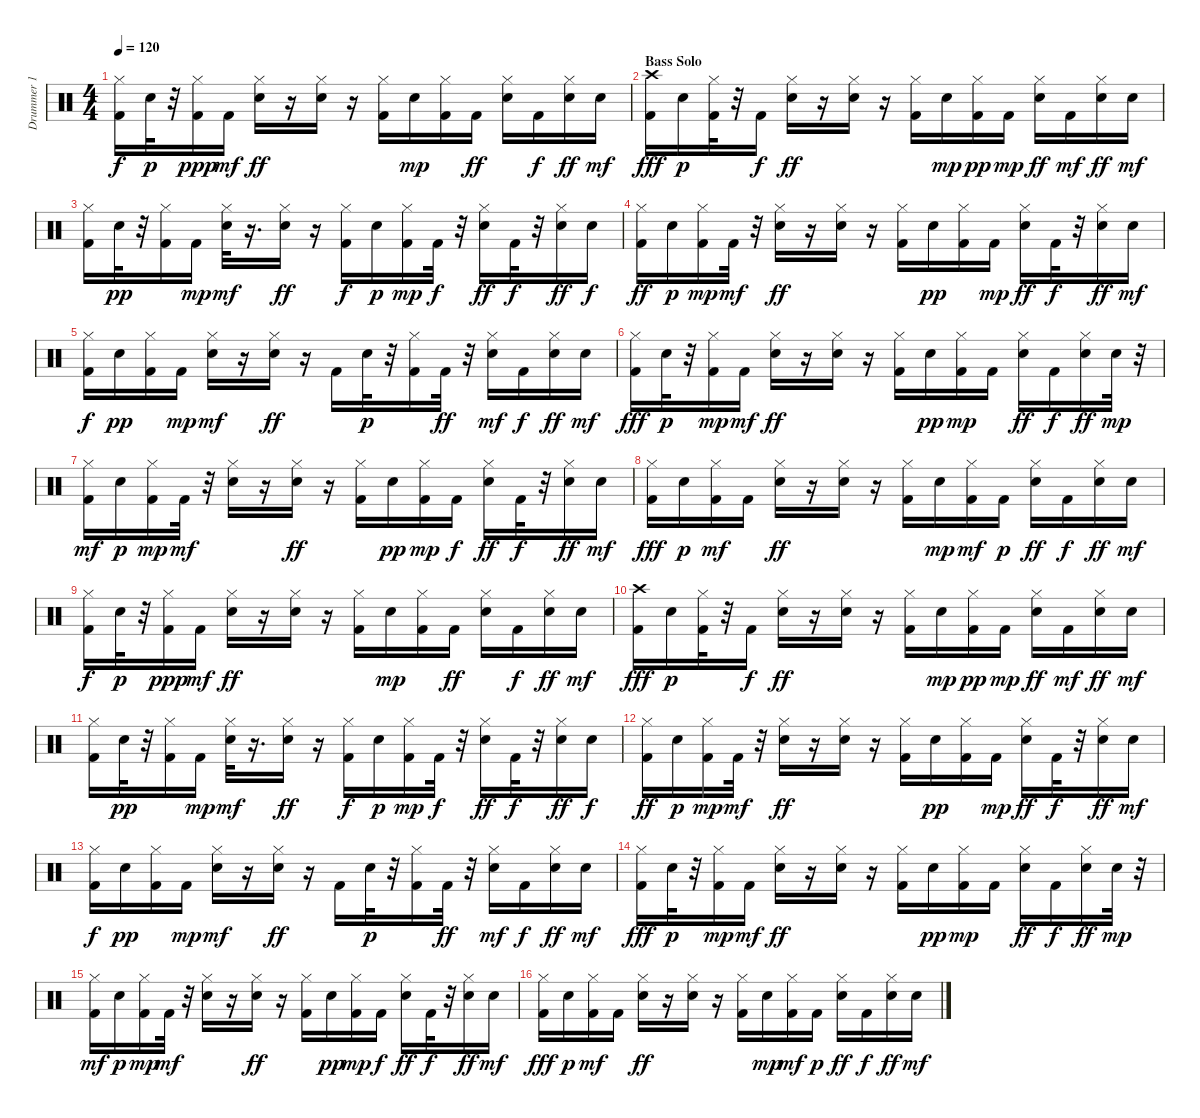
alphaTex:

\track ("Drummer 1" "Drummer 1") {instrument percussion}
\staff {score}
\articulation defaults
\ts (4 4)
\tempo 120
\clef neutral
\ks c
("Hi-Hat (closed)" "Kick (hit) 2").16{dy f} "Electric Snare (hit)".32{dy p} r.32 ("Kick (hit) 2" "Hi-Hat (closed)").16{dy ppp} "Kick (hit) 2".16{dy mf} ("Electric Snare (hit)" "Hi-Hat (closed)").16{dy ff} r.16 ("Hi-Hat (closed)" "Electric Snare (hit)").16 r.16 ("Hi-Hat (closed)" "Kick (hit) 2").16 "Electric Snare (hit)".16{dy mp} ("Hi-Hat (closed)" "Kick (hit) 2").16 "Kick (hit) 2".16{dy ff} ("Hi-Hat (closed)" "Electric Snare (hit)").16 "Kick (hit) 2".16{dy f} ("Hi-Hat (closed)" "Electric Snare (hit)").16{dy ff} "Electric Snare (hit)".16{dy mf} |
\section ("" "Bass Solo")
("Crash high (hit)" "Kick (hit) 2").16{dy fff} "Electric Snare (hit)".16{dy p} ("Hi-Hat (closed)" "Kick (hit) 2").32 r.32 "Kick (hit) 2".16{dy f} ("Hi-Hat (closed)" "Electric Snare (hit)").16{dy ff} r.16 ("Hi-Hat (closed)" "Electric Snare (hit)").16 r.16 ("Hi-Hat (closed)" "Kick (hit) 2").16 "Electric Snare (hit)".16{dy mp} ("Kick (hit) 2" "Hi-Hat (closed)").16{dy pp} "Kick (hit) 2".16{dy mp} ("Hi-Hat (closed)" "Electric Snare (hit)").16{dy ff} "Kick (hit) 2".16{dy mf} ("Hi-Hat (closed)" "Electric Snare (hit)").16{dy ff} "Electric Snare (hit)".16{dy mf} |
("Hi-Hat (closed)" "Kick (hit) 2").16 "Electric Snare (hit)".32{dy pp} r.32 ("Kick (hit) 2" "Hi-Hat (closed)").16 "Kick (hit) 2".16{dy mp} ("Electric Snare (hit)" "Hi-Hat (closed)").32{dy mf} r.16{d} ("Hi-Hat (closed)" "Electric Snare (hit)").16{dy ff} r.16 ("Hi-Hat (closed)" "Kick (hit) 2").16{dy f} "Electric Snare (hit)".16{dy p} ("Hi-Hat (closed)" "Kick (hit) 2").16{dy mp} "Kick (hit) 2".32{dy f} r.32 ("Hi-Hat (closed)" "Electric Snare (hit)").16{dy ff} "Kick (hit) 2".32{dy f} r.32 ("Hi-Hat (closed)" "Electric Snare (hit)").16{dy ff} "Electric Snare (hit)".16{dy f} |
("Hi-Hat (closed)" "Kick (hit) 2").16{dy ff} "Electric Snare (hit)".16{dy p} ("Hi-Hat (closed)" "Kick (hit) 2").16{dy mp} "Kick (hit) 2".32{dy mf} r.32 ("Hi-Hat (closed)" "Electric Snare (hit)").16{dy ff} r.16 ("Hi-Hat (closed)" "Electric Snare (hit)").16 r.16 ("Hi-Hat (closed)" "Kick (hit) 2").16 "Electric Snare (hit)".16{dy pp} ("Kick (hit) 2" "Hi-Hat (closed)").16 "Kick (hit) 2".16{dy mp} ("Hi-Hat (closed)" "Electric Snare (hit)").16{dy ff} "Kick (hit) 2".32{dy f} r.32 ("Hi-Hat (closed)" "Electric Snare (hit)").16{dy ff} "Electric Snare (hit)".16{dy mf} |
("Hi-Hat (closed)" "Kick (hit) 2").16{dy f} "Electric Snare (hit)".16{dy pp} ("Kick (hit) 2" "Hi-Hat (closed)").16 "Kick (hit) 2".16{dy mp} ("Electric Snare (hit)" "Hi-Hat (closed)").16{dy mf} r.16 ("Hi-Hat (closed)" "Electric Snare (hit)").16{dy ff} r.16 "Kick (hit) 2".16 "Electric Snare (hit)".32{dy p} r.32 ("Hi-Hat (closed)" "Kick (hit) 2").16 "Kick (hit) 2".32{dy ff} r.32 ("Hi-Hat (closed)" "Electric Snare (hit)").16{dy mf} "Kick (hit) 2".16{dy f} ("Hi-Hat (closed)" "Electric Snare (hit)").16{dy ff} "Electric Snare (hit)".16{dy mf} |
("Hi-Hat (closed)" "Kick (hit) 2").16{dy fff} "Electric Snare (hit)".32{dy p} r.32 ("Hi-Hat (closed)" "Kick (hit) 2").16{dy mp} "Kick (hit) 2".16{dy mf} ("Hi-Hat (closed)" "Electric Snare (hit)").16{dy ff} r.16 ("Hi-Hat (closed)" "Electric Snare (hit)").16 r.16 ("Hi-Hat (closed)" "Kick (hit) 2").16 "Electric Snare (hit)".16{dy pp} ("Kick (hit) 2" "Hi-Hat (closed)").16{dy mp} "Kick (hit) 2".16 ("Hi-Hat (closed)" "Electric Snare (hit)").16{dy ff} "Kick (hit) 2".16{dy f} ("Hi-Hat (closed)" "Electric Snare (hit)").16{dy ff} "Electric Snare (hit)".32{dy mp} r.32 |
("Hi-Hat (closed)" "Kick (hit) 2").16{dy mf} "Electric Snare (hit)".16{dy p} ("Kick (hit) 2" "Hi-Hat (closed)").16{dy mp} "Kick (hit) 2".32{dy mf} r.32 ("Electric Snare (hit)" "Hi-Hat (closed)").16 r.16 ("Hi-Hat (closed)" "Electric Snare (hit)").16{dy ff} r.16 ("Hi-Hat (closed)" "Kick (hit) 2").16 "Electric Snare (hit)".16{dy pp} ("Hi-Hat (closed)" "Kick (hit) 2").16{dy mp} "Kick (hit) 2".16{dy f} ("Hi-Hat (closed)" "Electric Snare (hit)").16{dy ff} "Kick (hit) 2".32{dy f} r.32 ("Hi-Hat (closed)" "Electric Snare (hit)").16{dy ff} "Electric Snare (hit)".16{dy mf} |
("Hi-Hat (closed)" "Kick (hit) 2").16{dy fff} "Electric Snare (hit)".16{dy p} ("Hi-Hat (closed)" "Kick (hit) 2").16{dy mf} "Kick (hit) 2".16 ("Hi-Hat (closed)" "Electric Snare (hit)").16{dy ff} r.16 ("Hi-Hat (closed)" "Electric Snare (hit)").16 r.16 ("Hi-Hat (closed)" "Kick (hit) 2").16 "Electric Snare (hit)".16{dy mp} ("Kick (hit) 2" "Hi-Hat (closed)").16{dy mf} "Kick (hit) 2".16{dy p} ("Hi-Hat (closed)" "Electric Snare (hit)").16{dy ff} "Kick (hit) 2".16{dy f} ("Hi-Hat (closed)" "Electric Snare (hit)").16{dy ff} "Electric Snare (hit)".16{dy mf} |
("Hi-Hat (closed)" "Kick (hit) 2").16{dy f} "Electric Snare (hit)".32{dy p} r.32 ("Kick (hit) 2" "Hi-Hat (closed)").16{dy ppp} "Kick (hit) 2".16{dy mf} ("Electric Snare (hit)" "Hi-Hat (closed)").16{dy ff} r.16 ("Hi-Hat (closed)" "Electric Snare (hit)").16 r.16 ("Hi-Hat (closed)" "Kick (hit) 2").16 "Electric Snare (hit)".16{dy mp} ("Hi-Hat (closed)" "Kick (hit) 2").16 "Kick (hit) 2".16{dy ff} ("Hi-Hat (closed)" "Electric Snare (hit)").16 "Kick (hit) 2".16{dy f} ("Hi-Hat (closed)" "Electric Snare (hit)").16{dy ff} "Electric Snare (hit)".16{dy mf} |
("Crash high (hit)" "Kick (hit) 2").16{dy fff} "Electric Snare (hit)".16{dy p} ("Hi-Hat (closed)" "Kick (hit) 2").32 r.32 "Kick (hit) 2".16{dy f} ("Hi-Hat (closed)" "Electric Snare (hit)").16{dy ff} r.16 ("Hi-Hat (closed)" "Electric Snare (hit)").16 r.16 ("Hi-Hat (closed)" "Kick (hit) 2").16 "Electric Snare (hit)".16{dy mp} ("Kick (hit) 2" "Hi-Hat (closed)").16{dy pp} "Kick (hit) 2".16{dy mp} ("Hi-Hat (closed)" "Electric Snare (hit)").16{dy ff} "Kick (hit) 2".16{dy mf} ("Hi-Hat (closed)" "Electric Snare (hit)").16{dy ff} "Electric Snare (hit)".16{dy mf} |
("Hi-Hat (closed)" "Kick (hit) 2").16 "Electric Snare (hit)".32{dy pp} r.32 ("Kick (hit) 2" "Hi-Hat (closed)").16 "Kick (hit) 2".16{dy mp} ("Electric Snare (hit)" "Hi-Hat (closed)").32{dy mf} r.16{d} ("Hi-Hat (closed)" "Electric Snare (hit)").16{dy ff} r.16 ("Hi-Hat (closed)" "Kick (hit) 2").16{dy f} "Electric Snare (hit)".16{dy p} ("Hi-Hat (closed)" "Kick (hit) 2").16{dy mp} "Kick (hit) 2".32{dy f} r.32 ("Hi-Hat (closed)" "Electric Snare (hit)").16{dy ff} "Kick (hit) 2".32{dy f} r.32 ("Hi-Hat (closed)" "Electric Snare (hit)").16{dy ff} "Electric Snare (hit)".16{dy f} |
("Hi-Hat (closed)" "Kick (hit) 2").16{dy ff} "Electric Snare (hit)".16{dy p} ("Hi-Hat (closed)" "Kick (hit) 2").16{dy mp} "Kick (hit) 2".32{dy mf} r.32 ("Hi-Hat (closed)" "Electric Snare (hit)").16{dy ff} r.16 ("Hi-Hat (closed)" "Electric Snare (hit)").16 r.16 ("Hi-Hat (closed)" "Kick (hit) 2").16 "Electric Snare (hit)".16{dy pp} ("Kick (hit) 2" "Hi-Hat (closed)").16 "Kick (hit) 2".16{dy mp} ("Hi-Hat (closed)" "Electric Snare (hit)").16{dy ff} "Kick (hit) 2".32{dy f} r.32 ("Hi-Hat (closed)" "Electric Snare (hit)").16{dy ff} "Electric Snare (hit)".16{dy mf} |
("Hi-Hat (closed)" "Kick (hit) 2").16{dy f} "Electric Snare (hit)".16{dy pp} ("Kick (hit) 2" "Hi-Hat (closed)").16 "Kick (hit) 2".16{dy mp} ("Electric Snare (hit)" "Hi-Hat (closed)").16{dy mf} r.16 ("Hi-Hat (closed)" "Electric Snare (hit)").16{dy ff} r.16 "Kick (hit) 2".16 "Electric Snare (hit)".32{dy p} r.32 ("Hi-Hat (closed)" "Kick (hit) 2").16 "Kick (hit) 2".32{dy ff} r.32 ("Hi-Hat (closed)" "Electric Snare (hit)").16{dy mf} "Kick (hit) 2".16{dy f} ("Hi-Hat (closed)" "Electric Snare (hit)").16{dy ff} "Electric Snare (hit)".16{dy mf} |
("Hi-Hat (closed)" "Kick (hit) 2").16{dy fff} "Electric Snare (hit)".32{dy p} r.32 ("Hi-Hat (closed)" "Kick (hit) 2").16{dy mp} "Kick (hit) 2".16{dy mf} ("Hi-Hat (closed)" "Electric Snare (hit)").16{dy ff} r.16 ("Hi-Hat (closed)" "Electric Snare (hit)").16 r.16 ("Hi-Hat (closed)" "Kick (hit) 2").16 "Electric Snare (hit)".16{dy pp} ("Kick (hit) 2" "Hi-Hat (closed)").16{dy mp} "Kick (hit) 2".16 ("Hi-Hat (closed)" "Electric Snare (hit)").16{dy ff} "Kick (hit) 2".16{dy f} ("Hi-Hat (closed)" "Electric Snare (hit)").16{dy ff} "Electric Snare (hit)".32{dy mp} r.32 |
("Hi-Hat (closed)" "Kick (hit) 2").16{dy mf} "Electric Snare (hit)".16{dy p} ("Kick (hit) 2" "Hi-Hat (closed)").16{dy mp} "Kick (hit) 2".32{dy mf} r.32 ("Electric Snare (hit)" "Hi-Hat (closed)").16 r.16 ("Hi-Hat (closed)" "Electric Snare (hit)").16{dy ff} r.16 ("Hi-Hat (closed)" "Kick (hit) 2").16 "Electric Snare (hit)".16{dy pp} ("Hi-Hat (closed)" "Kick (hit) 2").16{dy mp} "Kick (hit) 2".16{dy f} ("Hi-Hat (closed)" "Electric Snare (hit)").16{dy ff} "Kick (hit) 2".32{dy f} r.32 ("Hi-Hat (closed)" "Electric Snare (hit)").16{dy ff} "Electric Snare (hit)".16{dy mf} |
("Hi-Hat (closed)" "Kick (hit) 2").16{dy fff} "Electric Snare (hit)".16{dy p} ("Hi-Hat (closed)" "Kick (hit) 2").16{dy mf} "Kick (hit) 2".16 ("Hi-Hat (closed)" "Electric Snare (hit)").16{dy ff} r.16 ("Hi-Hat (closed)" "Electric Snare (hit)").16 r.16 ("Hi-Hat (closed)" "Kick (hit) 2").16 "Electric Snare (hit)".16{dy mp} ("Kick (hit) 2" "Hi-Hat (closed)").16{dy mf} "Kick (hit) 2".16{dy p} ("Hi-Hat (closed)" "Electric Snare (hit)").16{dy ff} "Kick (hit) 2".16{dy f} ("Hi-Hat (closed)" "Electric Snare (hit)").16{dy ff} "Electric Snare (hit)".16{dy mf}
